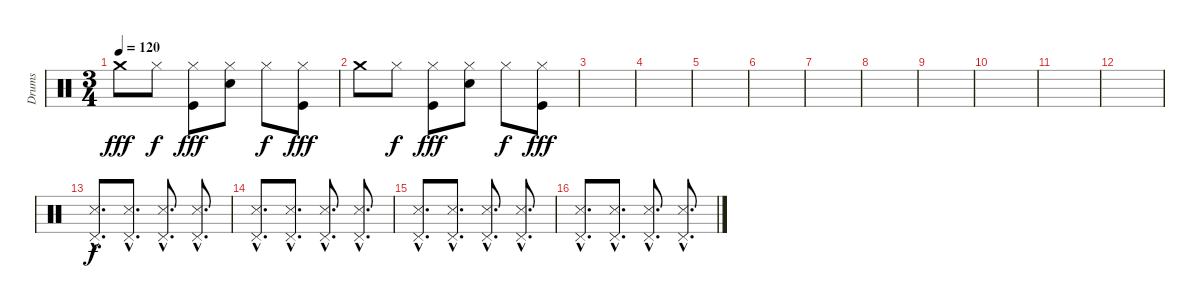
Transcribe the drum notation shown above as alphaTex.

\track ("Drums" "Drums") {instrument percussion}
\staff {score}
\articulation defaults
\ts (3 4)
\tempo 120
\clef neutral
\ks c "Crash medium (hit)".8{dy fff} "Hi-Hat (closed)".8{dy f}
("Kick (hit)" "Hi-Hat (closed)").8{dy fff} ("Snare (hit) 2" "Hi-Hat (closed)").8 "Hi-Hat (closed)".8{dy f} ("Kick (hit)" "Hi-Hat (closed)").8{dy fff} |
"Crash medium (hit)".8 "Hi-Hat (closed)".8{dy f} ("Kick (hit)" "Hi-Hat (closed)").8{dy fff} ("Snare (hit) 2" "Hi-Hat (closed)").8 "Hi-Hat (closed)".8{dy f} ("Kick (hit)" "Hi-Hat (closed)").8{dy fff} |
|
|
|
|
|
|
|
|
|
|
("Snare (side stick) 3"{hac} "Pedal Hi-Hat (hit)"{hac}).8{d dy f} ("Snare (side stick) 3"{hac} "Pedal Hi-Hat (hit)"{hac}).8{d} ("Snare (side stick) 3"{hac} "Pedal Hi-Hat (hit)"{hac}).8{d} ("Snare (side stick) 3"{hac} "Pedal Hi-Hat (hit)"{hac}).8{d} |
("Snare (side stick) 3"{hac} "Pedal Hi-Hat (hit)"{hac}).8{d} ("Snare (side stick) 3"{hac} "Pedal Hi-Hat (hit)"{hac}).8{d} ("Snare (side stick) 3"{hac} "Pedal Hi-Hat (hit)"{hac}).8{d} ("Snare (side stick) 3"{hac} "Pedal Hi-Hat (hit)"{hac}).8{d} |
("Snare (side stick) 3"{hac} "Pedal Hi-Hat (hit)"{hac}).8{d} ("Snare (side stick) 3"{hac} "Pedal Hi-Hat (hit)"{hac}).8{d} ("Snare (side stick) 3"{hac} "Pedal Hi-Hat (hit)"{hac}).8{d} ("Snare (side stick) 3"{hac} "Pedal Hi-Hat (hit)"{hac}).8{d} |
("Snare (side stick) 3"{hac} "Pedal Hi-Hat (hit)"{hac}).8{d} ("Snare (side stick) 3"{hac} "Pedal Hi-Hat (hit)"{hac}).8{d} ("Snare (side stick) 3"{hac} "Pedal Hi-Hat (hit)"{hac}).8{d} ("Snare (side stick) 3"{hac} "Pedal Hi-Hat (hit)"{hac}).8{d}
